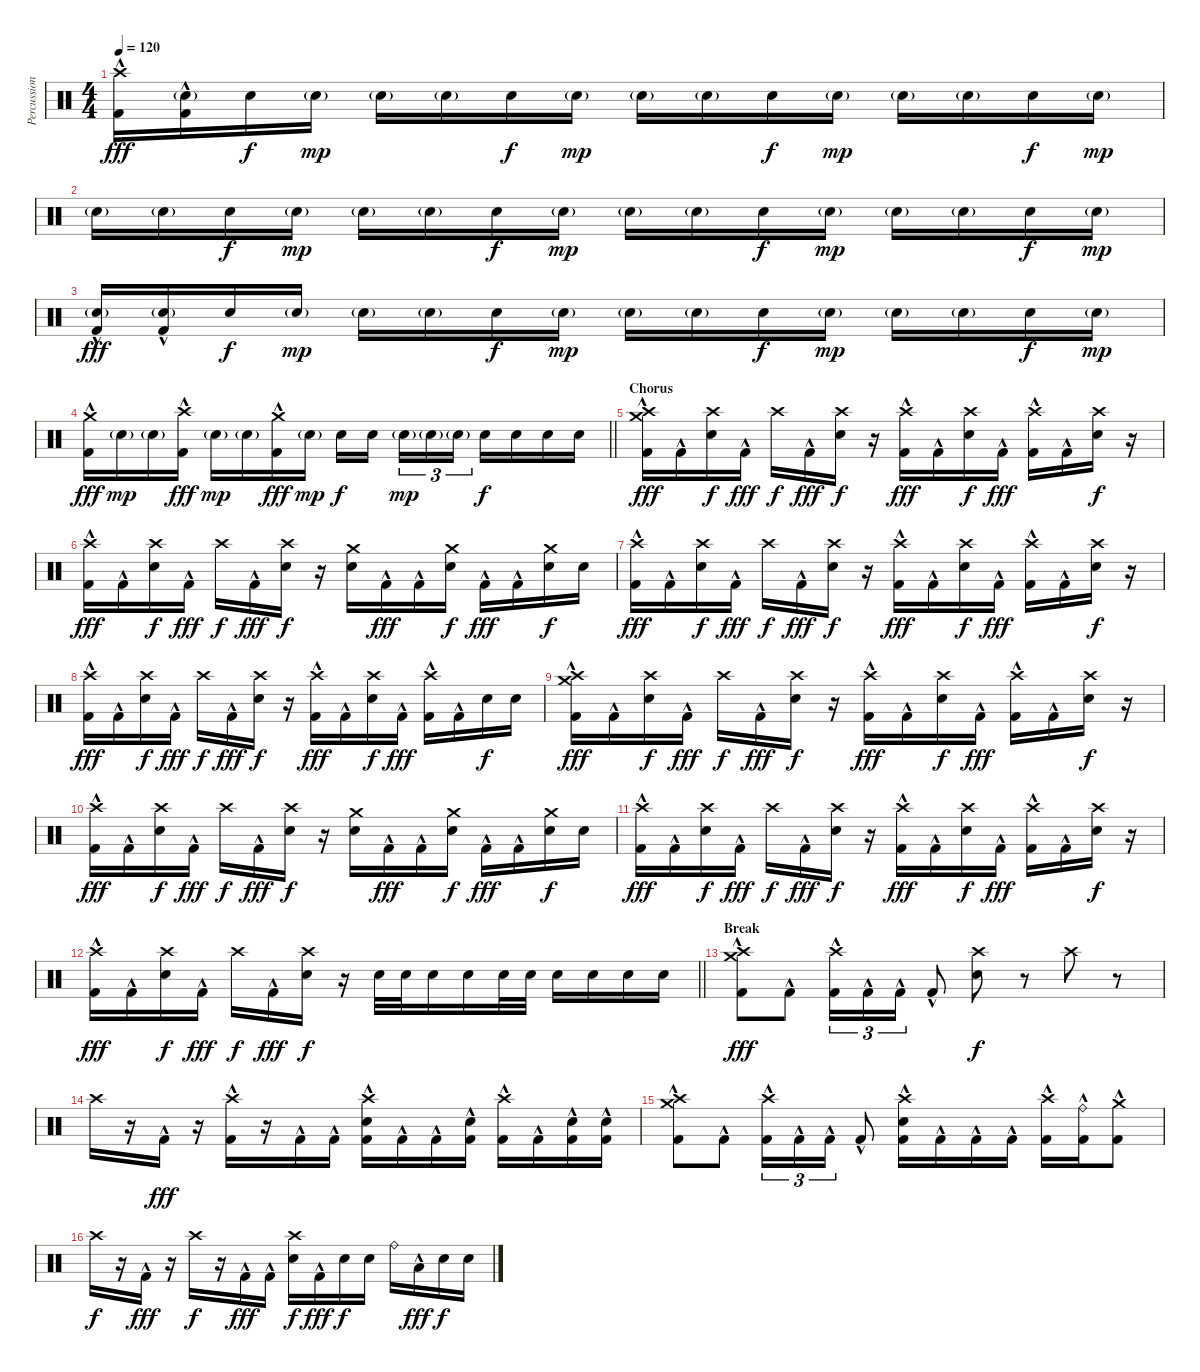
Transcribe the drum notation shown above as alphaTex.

\track ("Percussion" "Percussion") {instrument percussion}
\staff {score}
\articulation defaults
\ts (4 4)
\tempo 120
\clef neutral
\ks c
("Crash high (hit)" "Kick (hit) 2"{hac}).16{dy fff} ("Snare (hit) 2"{g} "Kick (hit) 2"{hac}).16 "Snare (hit) 2".16{dy f} "Snare (hit) 2"{g}.16{dy mp} "Snare (hit) 2"{g}.16 "Snare (hit) 2"{g}.16 "Snare (hit) 2".16{dy f} "Snare (hit) 2"{g}.16{dy mp} "Snare (hit) 2"{g}.16 "Snare (hit) 2"{g}.16 "Snare (hit) 2".16{dy f} "Snare (hit) 2"{g}.16{dy mp} "Snare (hit) 2"{g}.16 "Snare (hit) 2"{g}.16 "Snare (hit) 2".16{dy f} "Snare (hit) 2"{g}.16{dy mp} |
"Snare (hit) 2"{g}.16 "Snare (hit) 2"{g}.16 "Snare (hit) 2".16{dy f} "Snare (hit) 2"{g}.16{dy mp} "Snare (hit) 2"{g}.16 "Snare (hit) 2"{g}.16 "Snare (hit) 2".16{dy f} "Snare (hit) 2"{g}.16{dy mp} "Snare (hit) 2"{g}.16 "Snare (hit) 2"{g}.16 "Snare (hit) 2".16{dy f} "Snare (hit) 2"{g}.16{dy mp} "Snare (hit) 2"{g}.16 "Snare (hit) 2"{g}.16 "Snare (hit) 2".16{dy f} "Snare (hit) 2"{g}.16{dy mp} |
("Snare (hit) 2"{g} "Kick (hit) 2"{hac}).16{dy fff} ("Snare (hit) 2"{g} "Kick (hit) 2"{hac}).16 "Snare (hit) 2".16{dy f} "Snare (hit) 2"{g}.16{dy mp} "Snare (hit) 2"{g}.16 "Snare (hit) 2"{g}.16 "Snare (hit) 2".16{dy f} "Snare (hit) 2"{g}.16{dy mp} "Snare (hit) 2"{g}.16 "Snare (hit) 2"{g}.16 "Snare (hit) 2".16{dy f} "Snare (hit) 2"{g}.16{dy mp} "Snare (hit) 2"{g}.16 "Snare (hit) 2"{g}.16 "Snare (hit) 2".16{dy f} "Snare (hit) 2"{g}.16{dy mp} |
\barLineRight lightlight
("Crash medium (hit)" "Kick (hit) 2"{hac}).16{dy fff} "Snare (hit) 2"{g}.16{dy mp} "Snare (hit) 2"{g}.16 ("Crash high (hit)" "Kick (hit) 2"{hac}).16{dy fff} "Snare (hit) 2"{g}.16{dy mp} "Snare (hit) 2"{g}.16 ("Crash medium (hit)" "Kick (hit) 2"{hac}).16{dy fff} "Snare (hit) 2"{g}.16{dy mp} "Snare (hit) 2".16{dy f} "Snare (hit) 2".16{beam splitsecondary} "Snare (hit) 2"{g}.16{tu (3 2) dy mp} "Snare (hit) 2"{g}.16{tu (3 2)} "Snare (hit) 2"{g}.16{tu (3 2)} "Snare (hit) 2".16{dy f} "Snare (hit) 2".16 "Snare (hit) 2".16 "Snare (hit) 2".16 |
\section ("" "Chorus")
("Crash high (hit)" "Crash medium (hit)" "Kick (hit) 2"{hac}).16{dy fff} "Kick (hit) 2"{hac}.16 ("Crash high (hit)" "Snare (hit) 2").16{dy f} "Kick (hit) 2"{hac}.16{dy fff} "Crash high (hit)".16{dy f} "Kick (hit) 2"{hac}.16{dy fff} ("Crash high (hit)" "Snare (hit) 2").16{dy f} r.16 ("Crash high (hit)" "Kick (hit) 2"{hac}).16{dy fff} "Kick (hit) 2"{hac}.16 ("Crash high (hit)" "Snare (hit) 2").16{dy f} "Kick (hit) 2"{hac}.16{dy fff} ("Crash high (hit)" "Kick (hit) 2"{hac}).16 "Kick (hit) 2"{hac}.16 ("Crash high (hit)" "Snare (hit) 2").16{dy f} r.16 |
("Crash high (hit)" "Kick (hit) 2"{hac}).16{dy fff} "Kick (hit) 2"{hac}.16 ("Crash high (hit)" "Snare (hit) 2").16{dy f} "Kick (hit) 2"{hac}.16{dy fff} "Crash high (hit)".16{dy f} "Kick (hit) 2"{hac}.16{dy fff} ("Crash high (hit)" "Snare (hit) 2").16{dy f} r.16 ("Crash medium (hit)" "Snare (hit) 2").16 "Kick (hit) 2"{hac}.16{dy fff} "Kick (hit) 2"{hac}.16 ("Crash medium (hit)" "Snare (hit) 2").16{dy f} "Kick (hit) 2"{hac}.16{dy fff} "Kick (hit) 2"{hac}.16 ("Crash medium (hit)" "Snare (hit) 2").16{dy f} "Snare (hit) 2".16 |
("Crash high (hit)" "Kick (hit) 2"{hac}).16{dy fff} "Kick (hit) 2"{hac}.16 ("Crash high (hit)" "Snare (hit) 2").16{dy f} "Kick (hit) 2"{hac}.16{dy fff} "Crash high (hit)".16{dy f} "Kick (hit) 2"{hac}.16{dy fff} ("Crash high (hit)" "Snare (hit) 2").16{dy f} r.16 ("Crash high (hit)" "Kick (hit) 2"{hac}).16{dy fff} "Kick (hit) 2"{hac}.16 ("Crash high (hit)" "Snare (hit) 2").16{dy f} "Kick (hit) 2"{hac}.16{dy fff} ("Crash high (hit)" "Kick (hit) 2"{hac}).16 "Kick (hit) 2"{hac}.16 ("Crash high (hit)" "Snare (hit) 2").16{dy f} r.16 |
("Crash high (hit)" "Kick (hit) 2"{hac}).16{dy fff} "Kick (hit) 2"{hac}.16 ("Crash high (hit)" "Snare (hit) 2").16{dy f} "Kick (hit) 2"{hac}.16{dy fff} "Crash high (hit)".16{dy f} "Kick (hit) 2"{hac}.16{dy fff} ("Crash high (hit)" "Snare (hit) 2").16{dy f} r.16 ("Crash high (hit)" "Kick (hit) 2"{hac}).16{dy fff} "Kick (hit) 2"{hac}.16 ("Crash high (hit)" "Snare (hit) 2").16{dy f} "Kick (hit) 2"{hac}.16{dy fff} ("Crash high (hit)" "Kick (hit) 2"{hac}).16 "Kick (hit) 2"{hac}.16 "Snare (hit) 2".16{dy f} "Snare (hit) 2".16 |
("Crash high (hit)" "Crash medium (hit)" "Kick (hit) 2"{hac}).16{dy fff} "Kick (hit) 2"{hac}.16 ("Crash high (hit)" "Snare (hit) 2").16{dy f} "Kick (hit) 2"{hac}.16{dy fff} "Crash high (hit)".16{dy f} "Kick (hit) 2"{hac}.16{dy fff} ("Crash high (hit)" "Snare (hit) 2").16{dy f} r.16 ("Crash high (hit)" "Kick (hit) 2"{hac}).16{dy fff} "Kick (hit) 2"{hac}.16 ("Crash high (hit)" "Snare (hit) 2").16{dy f} "Kick (hit) 2"{hac}.16{dy fff} ("Crash high (hit)" "Kick (hit) 2"{hac}).16 "Kick (hit) 2"{hac}.16 ("Crash high (hit)" "Snare (hit) 2").16{dy f} r.16 |
("Crash high (hit)" "Kick (hit) 2"{hac}).16{dy fff} "Kick (hit) 2"{hac}.16 ("Crash high (hit)" "Snare (hit) 2").16{dy f} "Kick (hit) 2"{hac}.16{dy fff} "Crash high (hit)".16{dy f} "Kick (hit) 2"{hac}.16{dy fff} ("Crash high (hit)" "Snare (hit) 2").16{dy f} r.16 ("Crash medium (hit)" "Snare (hit) 2").16 "Kick (hit) 2"{hac}.16{dy fff} "Kick (hit) 2"{hac}.16 ("Crash medium (hit)" "Snare (hit) 2").16{dy f} "Kick (hit) 2"{hac}.16{dy fff} "Kick (hit) 2"{hac}.16 ("Crash medium (hit)" "Snare (hit) 2").16{dy f} "Snare (hit) 2".16 |
("Crash high (hit)" "Kick (hit) 2"{hac}).16{dy fff} "Kick (hit) 2"{hac}.16 ("Crash high (hit)" "Snare (hit) 2").16{dy f} "Kick (hit) 2"{hac}.16{dy fff} "Crash high (hit)".16{dy f} "Kick (hit) 2"{hac}.16{dy fff} ("Crash high (hit)" "Snare (hit) 2").16{dy f} r.16 ("Crash high (hit)" "Kick (hit) 2"{hac}).16{dy fff} "Kick (hit) 2"{hac}.16 ("Crash high (hit)" "Snare (hit) 2").16{dy f} "Kick (hit) 2"{hac}.16{dy fff} ("Crash high (hit)" "Kick (hit) 2"{hac}).16 "Kick (hit) 2"{hac}.16 ("Crash high (hit)" "Snare (hit) 2").16{dy f} r.16 |
\barLineRight lightlight
("Crash high (hit)" "Kick (hit) 2"{hac}).16{dy fff} "Kick (hit) 2"{hac}.16 ("Crash high (hit)" "Snare (hit) 2").16{dy f} "Kick (hit) 2"{hac}.16{dy fff} "Crash high (hit)".16{dy f} "Kick (hit) 2"{hac}.16{dy fff} ("Crash high (hit)" "Snare (hit) 2").16{dy f} r.16 "Snare (hit) 2".32 "Snare (hit) 2".32 "Snare (hit) 2".16 "Snare (hit) 2".16 "Snare (hit) 2".32 "Snare (hit) 2".32 "Snare (hit) 2".16 "Snare (hit) 2".16 "Snare (hit) 2".16 "Snare (hit) 2".16 |
\section ("" "Break")
("Crash high (hit)" "Crash medium (hit)" "Kick (hit) 2"{hac}).8{dy fff} "Kick (hit) 2"{hac}.8 ("Crash high (hit)" "Kick (hit) 2"{hac}).16{tu (3 2)} "Kick (hit) 2"{hac}.16{tu (3 2)} "Kick (hit) 2"{hac}.16{tu (3 2)} "Kick (hit) 2"{hac}.8 ("Crash high (hit)" "Snare (hit) 2").8{dy f} r.8 "Crash high (hit)".8 r.8 |
"Crash high (hit)".16 r.16 "Kick (hit) 2"{hac}.16{dy fff} r.16 ("Crash high (hit)" "Kick (hit) 2"{hac}).16 r.16 "Kick (hit) 2"{hac}.16 "Kick (hit) 2"{hac}.16 ("Crash high (hit)" "Snare (hit) 2" "Kick (hit) 2"{hac}).16 "Kick (hit) 2"{hac}.16 "Kick (hit) 2"{hac}.16 ("Snare (hit) 2" "Kick (hit) 2"{hac}).16 ("Crash high (hit)" "Kick (hit) 2"{hac}).16 "Kick (hit) 2"{hac}.16 ("Snare (hit) 2" "Kick (hit) 2"{hac}).16 ("Snare (hit) 2" "Kick (hit) 2"{hac}).16 |
("Crash high (hit)" "Crash medium (hit)" "Kick (hit) 2"{hac}).8 "Kick (hit) 2"{hac}.8 ("Crash high (hit)" "Kick (hit) 2"{hac}).16{tu (3 2)} "Kick (hit) 2"{hac}.16{tu (3 2)} "Kick (hit) 2"{hac}.16{tu (3 2)} "Kick (hit) 2"{hac}.8 ("Crash high (hit)" "Snare (hit) 2" "Kick (hit) 2"{hac}).16 "Kick (hit) 2"{hac}.16 "Kick (hit) 2"{hac}.16 "Kick (hit) 2"{hac}.16 ("Crash high (hit)" "Kick (hit) 2"{hac}).16 ("Ride (bell)" "Kick (hit) 2"{hac}).16 ("Crash medium (hit)" "Kick (hit) 2"{hac}).8 |
"Crash high (hit)".16{dy f} r.16 "Kick (hit) 2"{hac}.16{dy fff} r.16 "Crash high (hit)".16{dy f} r.16 "Kick (hit) 2"{hac}.16{dy fff} "Kick (hit) 2"{hac}.16 ("Crash high (hit)" "Snare (hit) 2").16{dy f} "Kick (hit) 2"{hac}.16{dy fff} "Snare (hit) 2".16{dy f} "Snare (hit) 2".16 "Ride (bell)".16 "Low Floor Tom (hit)"{hac}.16{dy fff} "Snare (hit) 2".16{dy f} "Snare (hit) 2".16
